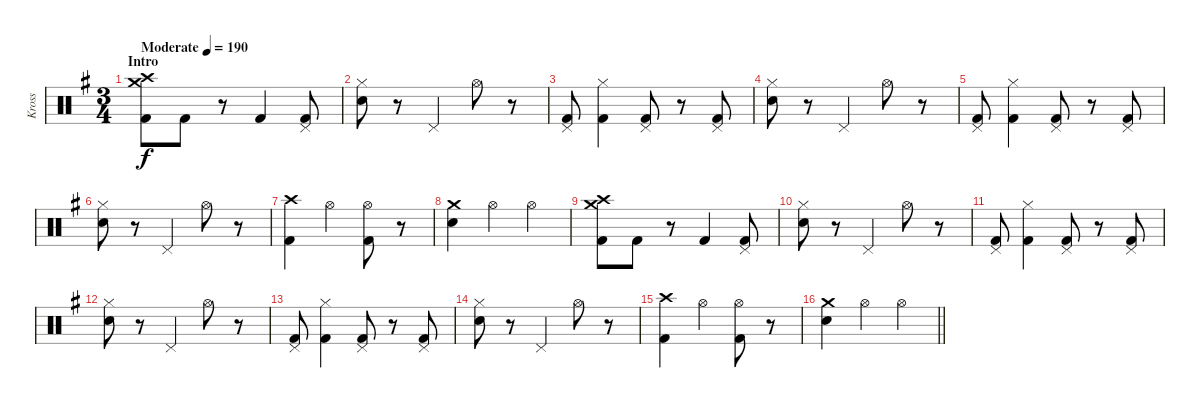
\track ("Kross" "Kross") {instrument percussion}
\staff {score}
\articulation defaults
\ts (3 4)
\section ("" "Intro")
\tempo (190 "Moderate")
\clef neutral
\ks g
("Crash medium (hit)" "Crash high (hit)" "Kick (hit) 2").8{dy f} "Kick (hit) 2".8 r.8 "Kick (hit) 2".4 ("Pedal Hi-Hat (hit)" "Kick (hit) 2").8 |
("Hi-Hat (closed)" "Snare (hit) 2").8 r.8 "Pedal Hi-Hat (hit)".4 "Hi-Hat (open)".8 r.8 |
("Pedal Hi-Hat (hit)" "Kick (hit) 2").8 ("Hi-Hat (closed)" "Kick (hit) 2").4 ("Pedal Hi-Hat (hit)" "Kick (hit) 2").8 r.8 ("Pedal Hi-Hat (hit)" "Kick (hit) 2").8 |
("Hi-Hat (closed)" "Snare (hit) 2").8 r.8 "Pedal Hi-Hat (hit)".4 "Hi-Hat (open)".8 r.8 |
("Pedal Hi-Hat (hit)" "Kick (hit) 2").8 ("Hi-Hat (closed)" "Kick (hit) 2").4 ("Pedal Hi-Hat (hit)" "Kick (hit) 2").8 r.8 ("Pedal Hi-Hat (hit)" "Kick (hit) 2").8 |
("Hi-Hat (closed)" "Snare (hit) 2").8 r.8 "Pedal Hi-Hat (hit)".4 "Hi-Hat (open)".8 r.8 |
("Crash high (hit)" "Kick (hit) 2").4 "Hi-Hat (open)".4 ("Hi-Hat (open)" "Kick (hit) 2").8 r.8 |
("Crash medium (hit)" "Snare (hit) 2").4 "Hi-Hat (open)".4 "Hi-Hat (open)".4 |
("Crash medium (hit)" "Crash high (hit)" "Kick (hit) 2").8 "Kick (hit) 2".8 r.8 "Kick (hit) 2".4 ("Pedal Hi-Hat (hit)" "Kick (hit) 2").8 |
("Hi-Hat (closed)" "Snare (hit) 2").8 r.8 "Pedal Hi-Hat (hit)".4 "Hi-Hat (open)".8 r.8 |
("Pedal Hi-Hat (hit)" "Kick (hit) 2").8 ("Hi-Hat (closed)" "Kick (hit) 2").4 ("Pedal Hi-Hat (hit)" "Kick (hit) 2").8 r.8 ("Pedal Hi-Hat (hit)" "Kick (hit) 2").8 |
("Hi-Hat (closed)" "Snare (hit) 2").8 r.8 "Pedal Hi-Hat (hit)".4 "Hi-Hat (open)".8 r.8 |
("Pedal Hi-Hat (hit)" "Kick (hit) 2").8 ("Hi-Hat (closed)" "Kick (hit) 2").4 ("Pedal Hi-Hat (hit)" "Kick (hit) 2").8 r.8 ("Pedal Hi-Hat (hit)" "Kick (hit) 2").8 |
("Hi-Hat (closed)" "Snare (hit) 2").8 r.8 "Pedal Hi-Hat (hit)".4 "Hi-Hat (open)".8 r.8 |
("Crash high (hit)" "Kick (hit) 2").4 "Hi-Hat (open)".4 ("Hi-Hat (open)" "Kick (hit) 2").8 r.8 |
\barLineRight lightlight
("Crash medium (hit)" "Snare (hit) 2").4 "Hi-Hat (open)".4 "Hi-Hat (open)".4
